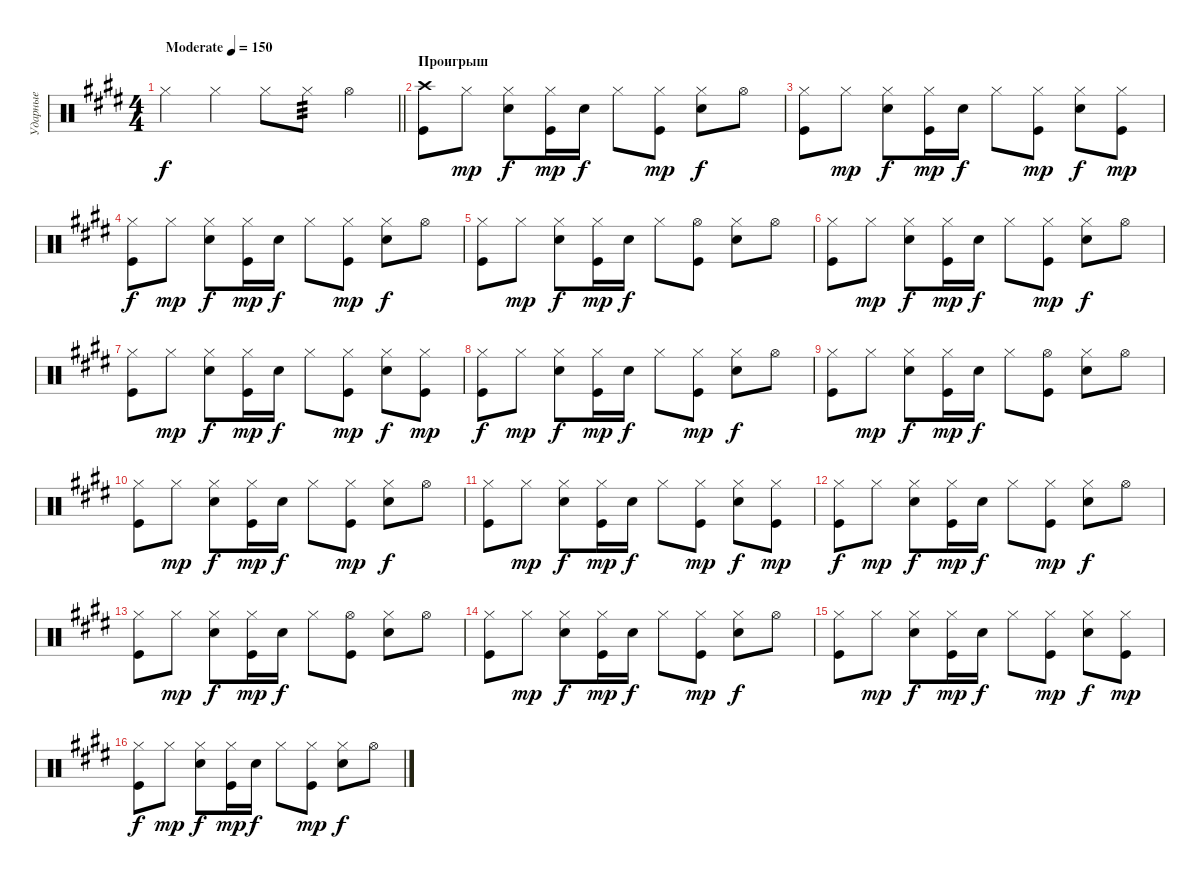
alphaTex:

\track ("Ударные" "Ударные") {instrument percussion}
\staff {score}
\articulation defaults
\ts (4 4)
\tempo (150 "Moderate")
\clef neutral
\barLineRight lightlight
\ks c#minor "Hi-Hat (closed)".4{dy f} "Hi-Hat (closed)".4 "Hi-Hat (closed)".8 "Hi-Hat (closed)".8{tp 3} "Hi-Hat (open)".4
|
\section ("" "Проигрыш")
("Crash high (hit)" "Kick (hit)").8 "Hi-Hat (closed)".8{dy mp} ("Hi-Hat (closed)" "Snare (hit) 2").8{dy f} ("Hi-Hat (closed)" "Kick (hit)").16{dy mp} "Snare (hit) 2".16{dy f} "Hi-Hat (closed)".8 ("Hi-Hat (closed)" "Kick (hit)").8{dy mp} ("Hi-Hat (closed)" "Snare (hit) 2").8{dy f} "Hi-Hat (open)".8 |
("Hi-Hat (closed)" "Kick (hit)").8 "Hi-Hat (closed)".8{dy mp} ("Hi-Hat (closed)" "Snare (hit) 2").8{dy f} ("Hi-Hat (closed)" "Kick (hit)").16{dy mp} "Snare (hit) 2".16{dy f} "Hi-Hat (closed)".8 ("Hi-Hat (closed)" "Kick (hit)").8{dy mp} ("Hi-Hat (closed)" "Snare (hit) 2").8{dy f} ("Hi-Hat (closed)" "Kick (hit)").8{dy mp} |
("Hi-Hat (closed)" "Kick (hit)").8{dy f} "Hi-Hat (closed)".8{dy mp} ("Hi-Hat (closed)" "Snare (hit) 2").8{dy f} ("Hi-Hat (closed)" "Kick (hit)").16{dy mp} "Snare (hit) 2".16{dy f} "Hi-Hat (closed)".8 ("Hi-Hat (closed)" "Kick (hit)").8{dy mp} ("Hi-Hat (closed)" "Snare (hit) 2").8{dy f} "Hi-Hat (open)".8 |
("Hi-Hat (closed)" "Kick (hit)").8 "Hi-Hat (closed)".8{dy mp} ("Hi-Hat (closed)" "Snare (hit) 2").8{dy f} ("Hi-Hat (closed)" "Kick (hit)").16{dy mp} "Snare (hit) 2".16{dy f} "Hi-Hat (closed)".8 ("Hi-Hat (open)" "Kick (hit)").8 ("Hi-Hat (closed)" "Snare (hit) 2").8 "Hi-Hat (open)".8 |
("Hi-Hat (closed)" "Kick (hit)").8 "Hi-Hat (closed)".8{dy mp} ("Hi-Hat (closed)" "Snare (hit) 2").8{dy f} ("Hi-Hat (closed)" "Kick (hit)").16{dy mp} "Snare (hit) 2".16{dy f} "Hi-Hat (closed)".8 ("Hi-Hat (closed)" "Kick (hit)").8{dy mp} ("Hi-Hat (closed)" "Snare (hit) 2").8{dy f} "Hi-Hat (open)".8 |
("Hi-Hat (closed)" "Kick (hit)").8 "Hi-Hat (closed)".8{dy mp} ("Hi-Hat (closed)" "Snare (hit) 2").8{dy f} ("Hi-Hat (closed)" "Kick (hit)").16{dy mp} "Snare (hit) 2".16{dy f} "Hi-Hat (closed)".8 ("Hi-Hat (closed)" "Kick (hit)").8{dy mp} ("Hi-Hat (closed)" "Snare (hit) 2").8{dy f} ("Hi-Hat (closed)" "Kick (hit)").8{dy mp} |
("Hi-Hat (closed)" "Kick (hit)").8{dy f} "Hi-Hat (closed)".8{dy mp} ("Hi-Hat (closed)" "Snare (hit) 2").8{dy f} ("Hi-Hat (closed)" "Kick (hit)").16{dy mp} "Snare (hit) 2".16{dy f} "Hi-Hat (closed)".8 ("Hi-Hat (closed)" "Kick (hit)").8{dy mp} ("Hi-Hat (closed)" "Snare (hit) 2").8{dy f} "Hi-Hat (open)".8 |
("Hi-Hat (closed)" "Kick (hit)").8 "Hi-Hat (closed)".8{dy mp} ("Hi-Hat (closed)" "Snare (hit) 2").8{dy f} ("Hi-Hat (closed)" "Kick (hit)").16{dy mp} "Snare (hit) 2".16{dy f} "Hi-Hat (closed)".8 ("Hi-Hat (open)" "Kick (hit)").8 ("Hi-Hat (closed)" "Snare (hit) 2").8 "Hi-Hat (open)".8 |
("Hi-Hat (closed)" "Kick (hit)").8 "Hi-Hat (closed)".8{dy mp} ("Hi-Hat (closed)" "Snare (hit) 2").8{dy f} ("Hi-Hat (closed)" "Kick (hit)").16{dy mp} "Snare (hit) 2".16{dy f} "Hi-Hat (closed)".8 ("Hi-Hat (closed)" "Kick (hit)").8{dy mp} ("Hi-Hat (closed)" "Snare (hit) 2").8{dy f} "Hi-Hat (open)".8 |
("Hi-Hat (closed)" "Kick (hit)").8 "Hi-Hat (closed)".8{dy mp} ("Hi-Hat (closed)" "Snare (hit) 2").8{dy f} ("Hi-Hat (closed)" "Kick (hit)").16{dy mp} "Snare (hit) 2".16{dy f} "Hi-Hat (closed)".8 ("Hi-Hat (closed)" "Kick (hit)").8{dy mp} ("Hi-Hat (closed)" "Snare (hit) 2").8{dy f} ("Hi-Hat (closed)" "Kick (hit)").8{dy mp} |
("Hi-Hat (closed)" "Kick (hit)").8{dy f} "Hi-Hat (closed)".8{dy mp} ("Hi-Hat (closed)" "Snare (hit) 2").8{dy f} ("Hi-Hat (closed)" "Kick (hit)").16{dy mp} "Snare (hit) 2".16{dy f} "Hi-Hat (closed)".8 ("Hi-Hat (closed)" "Kick (hit)").8{dy mp} ("Hi-Hat (closed)" "Snare (hit) 2").8{dy f} "Hi-Hat (open)".8 |
("Hi-Hat (closed)" "Kick (hit)").8 "Hi-Hat (closed)".8{dy mp} ("Hi-Hat (closed)" "Snare (hit) 2").8{dy f} ("Hi-Hat (closed)" "Kick (hit)").16{dy mp} "Snare (hit) 2".16{dy f} "Hi-Hat (closed)".8 ("Hi-Hat (open)" "Kick (hit)").8 ("Hi-Hat (closed)" "Snare (hit) 2").8 "Hi-Hat (open)".8 |
("Hi-Hat (closed)" "Kick (hit)").8 "Hi-Hat (closed)".8{dy mp} ("Hi-Hat (closed)" "Snare (hit) 2").8{dy f} ("Hi-Hat (closed)" "Kick (hit)").16{dy mp} "Snare (hit) 2".16{dy f} "Hi-Hat (closed)".8 ("Hi-Hat (closed)" "Kick (hit)").8{dy mp} ("Hi-Hat (closed)" "Snare (hit) 2").8{dy f} "Hi-Hat (open)".8 |
("Hi-Hat (closed)" "Kick (hit)").8 "Hi-Hat (closed)".8{dy mp} ("Hi-Hat (closed)" "Snare (hit) 2").8{dy f} ("Hi-Hat (closed)" "Kick (hit)").16{dy mp} "Snare (hit) 2".16{dy f} "Hi-Hat (closed)".8 ("Hi-Hat (closed)" "Kick (hit)").8{dy mp} ("Hi-Hat (closed)" "Snare (hit) 2").8{dy f} ("Hi-Hat (closed)" "Kick (hit)").8{dy mp} |
("Hi-Hat (closed)" "Kick (hit)").8{dy f} "Hi-Hat (closed)".8{dy mp} ("Hi-Hat (closed)" "Snare (hit) 2").8{dy f} ("Hi-Hat (closed)" "Kick (hit)").16{dy mp} "Snare (hit) 2".16{dy f} "Hi-Hat (closed)".8 ("Hi-Hat (closed)" "Kick (hit)").8{dy mp} ("Hi-Hat (closed)" "Snare (hit) 2").8{dy f} "Hi-Hat (open)".8
